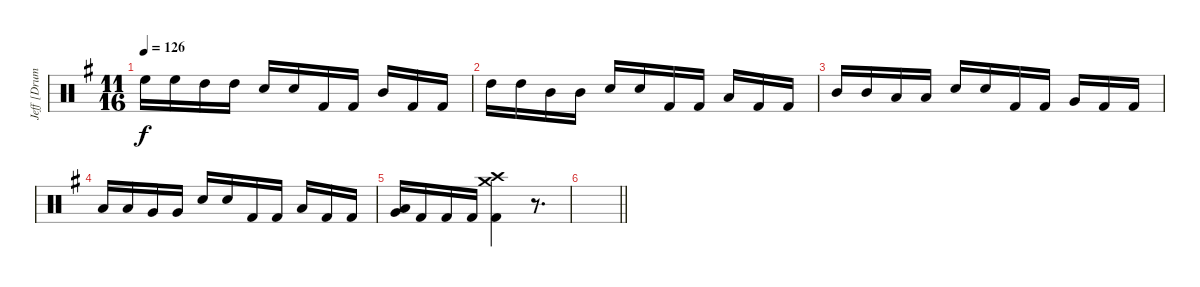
\track ("Jeff [Drums]" "Jeff [Drum") {instrument percussion}
\staff {score}
\articulation defaults
\ts (11 16)
\tempo 126
\clef neutral
\ks g "High Floor Tom (hit)".16{dy f} "High Floor Tom (hit)".16 "High Tom (hit)".16 "High Tom (hit)".16 "Electric Snare (hit)".16 "Electric Snare (hit)".16 "Kick (hit) 2".16 "Kick (hit) 2".16 "Mid Tom (hit)".16 "Kick (hit) 2".16 "Kick (hit) 2".16
|
"High Tom (hit)".16 "High Tom (hit)".16 "Mid Tom (hit)".16 "Mid Tom (hit)".16 "Electric Snare (hit)".16 "Electric Snare (hit)".16 "Kick (hit) 2".16 "Kick (hit) 2".16 "Low Tom (hit)".16 "Kick (hit) 2".16 "Kick (hit) 2".16 |
"Mid Tom (hit)".16 "Mid Tom (hit)".16 "Low Tom (hit)".16 "Low Tom (hit)".16 "Electric Snare (hit)".16 "Electric Snare (hit)".16 "Kick (hit) 2".16 "Kick (hit) 2".16 "Very Low Tom (hit)".16 "Kick (hit) 2".16 "Kick (hit) 2".16 |
"Low Tom (hit)".16 "Low Tom (hit)".16 "Very Low Tom (hit)".16 "Very Low Tom (hit)".16 "Electric Snare (hit)".16 "Electric Snare (hit)".16 "Kick (hit) 2".16 "Kick (hit) 2".16 "Low Floor Tom (hit)".16 "Kick (hit) 2".16 "Kick (hit) 2".16 |
("Very Low Tom (hit)" "Low Floor Tom (hit)").16 "Kick (hit) 2".16 "Kick (hit) 2".16 "Kick (hit) 2".16 ("Crash high (hit)" "Crash medium (hit)" "Kick (hit) 2").4 r.8{d} |
\barLineRight lightlight
